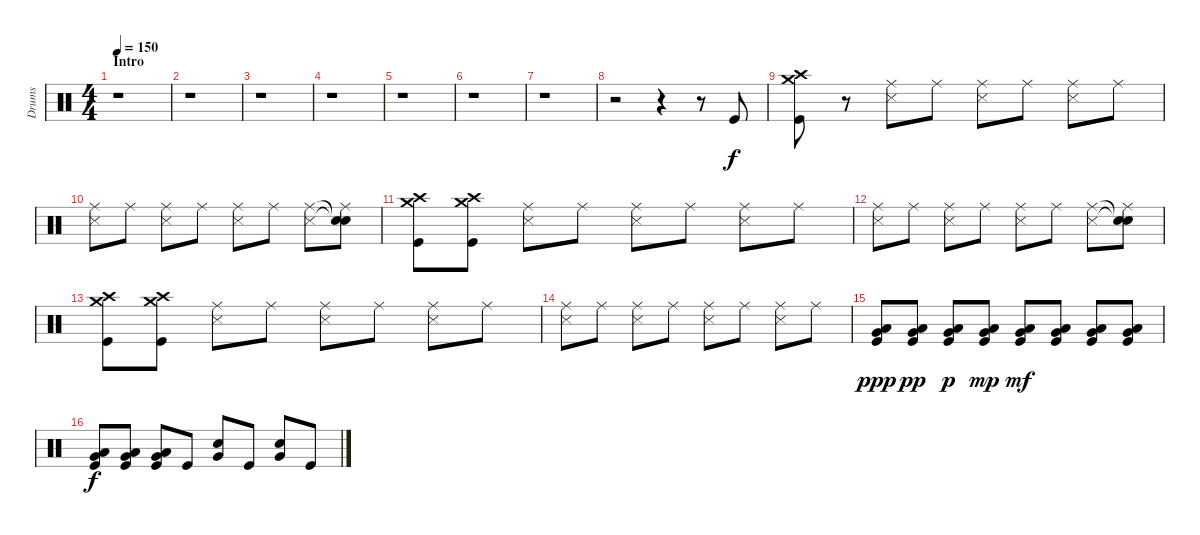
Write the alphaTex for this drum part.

\track ("Drums" "Drums") {instrument percussion}
\staff {score}
\articulation defaults
\ts (4 4)
\section ("" "Intro")
\tempo 150
\tempo 145
\tempo 150
\clef neutral
\ks c
r.1{dy f} |
r.1 |
r.1 |
r.1 |
r.1 |
r.1 |
r.1 |
r.2 r.4 r.8 "Kick (hit)".8 |
("Crash medium (hit)" "Crash high (hit)" "Kick (hit)").8 r.8 ("Ride (middle)" "Snare (side stick) 3").8 "Ride (middle)".8 ("Ride (middle)" "Snare (side stick) 3").8 "Ride (middle)".8 ("Ride (middle)" "Snare (side stick) 3").8 "Ride (middle)".8 |
("Ride (middle)" "Snare (side stick) 3").8 "Ride (middle)".8 ("Ride (middle)" "Snare (side stick) 3").8 "Ride (middle)".8 ("Ride (middle)" "Snare (side stick) 3").8 "Ride (middle)".8 ("Ride (middle)" "Snare (side stick) 3").8 ("Snare (hit)"{t} "Snare (hit)"{t} "Ride (middle)").8 |
("Crash medium (hit)" "Crash high (hit)" "Kick (hit)").8 ("Crash medium (hit)" "Crash high (hit)" "Kick (hit)").8 ("Ride (middle)" "Snare (side stick) 3").8 "Ride (middle)".8 ("Ride (middle)" "Snare (side stick) 3").8 "Ride (middle)".8 ("Ride (middle)" "Snare (side stick) 3").8 "Ride (middle)".8 |
("Ride (middle)" "Snare (side stick) 3").8 "Ride (middle)".8 ("Ride (middle)" "Snare (side stick) 3").8 "Ride (middle)".8 ("Ride (middle)" "Snare (side stick) 3").8 "Ride (middle)".8 ("Ride (middle)" "Snare (side stick) 3").8 ("Snare (hit)"{t} "Snare (hit)"{t} "Ride (middle)").8 |
("Crash medium (hit)" "Crash high (hit)" "Kick (hit)").8 ("Crash medium (hit)" "Crash high (hit)" "Kick (hit)").8 ("Ride (middle)" "Snare (side stick) 3").8 "Ride (middle)".8 ("Ride (middle)" "Snare (side stick) 3").8 "Ride (middle)".8 ("Ride (middle)" "Snare (side stick) 3").8 "Ride (middle)".8 |
("Ride (middle)" "Snare (side stick) 3").8 "Ride (middle)".8 ("Ride (middle)" "Snare (side stick) 3").8 "Ride (middle)".8 ("Ride (middle)" "Snare (side stick) 3").8 "Ride (middle)".8 ("Ride (middle)" "Snare (side stick) 3").8 "Ride (middle)".8 |
("Low Floor Tom (hit)" "Very Low Tom (hit)" "Kick (hit)").8{dy ppp} ("Low Floor Tom (hit)" "Very Low Tom (hit)" "Kick (hit)").8{dy pp} ("Low Floor Tom (hit)" "Very Low Tom (hit)" "Kick (hit)").8{dy p} ("Low Floor Tom (hit)" "Very Low Tom (hit)" "Kick (hit)").8{dy mp} ("Low Floor Tom (hit)" "Very Low Tom (hit)" "Kick (hit)").8{dy mf} ("Low Floor Tom (hit)" "Very Low Tom (hit)" "Kick (hit)").8 ("Low Floor Tom (hit)" "Very Low Tom (hit)" "Kick (hit)").8 ("Low Floor Tom (hit)" "Very Low Tom (hit)" "Kick (hit)").8 |
("Low Floor Tom (hit)" "Very Low Tom (hit)" "Kick (hit)").8{dy f} ("Low Floor Tom (hit)" "Very Low Tom (hit)" "Kick (hit)").8 ("Low Floor Tom (hit)" "Very Low Tom (hit)" "Kick (hit)").8 "Kick (hit)".8 ("Electric Snare (hit)" "Very Low Tom (hit)").8 "Kick (hit)".8 ("Electric Snare (hit)" "Very Low Tom (hit)").8 "Kick (hit)".8
